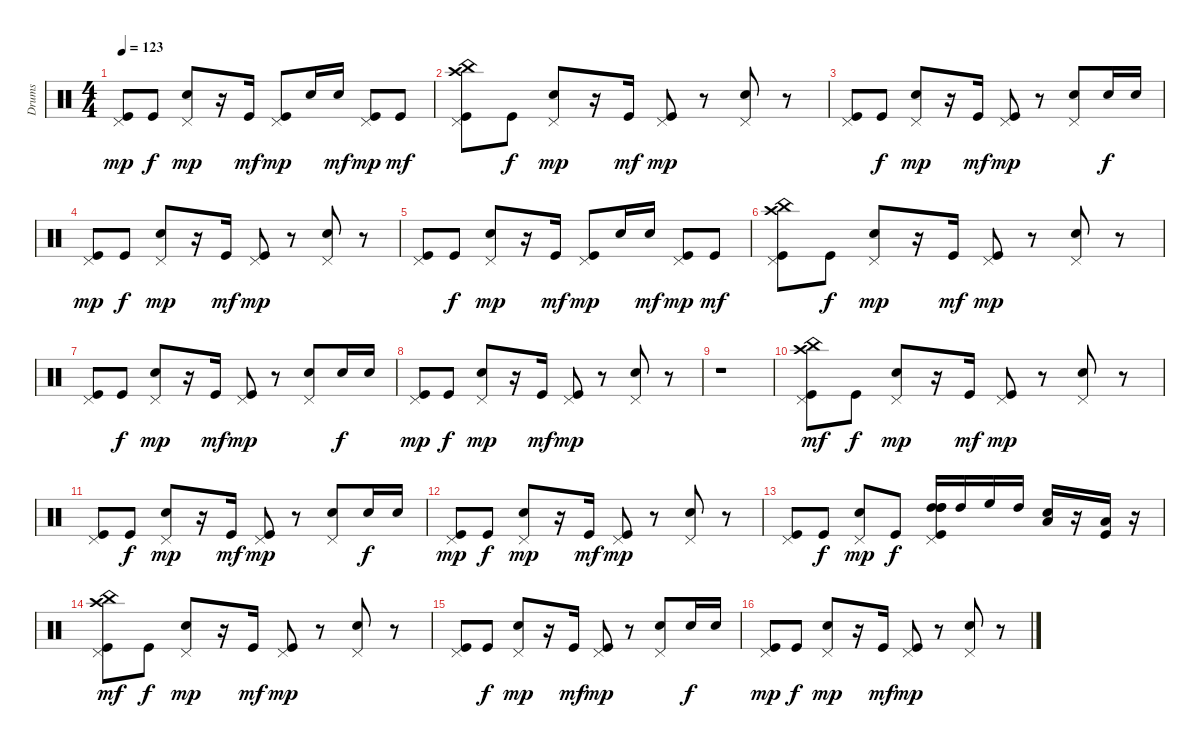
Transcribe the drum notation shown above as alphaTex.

\track ("Drums" "Drums") {instrument percussion}
\staff {score}
\articulation defaults
\ts (4 4)
\tempo 123
\clef neutral
\ks c
("Pedal Hi-Hat (hit)" "Kick (hit)").8{dy mp} "Kick (hit)".8{dy f} ("Pedal Hi-Hat (hit)" "Electric Snare (hit)").8{dy mp} r.16 "Kick (hit)".16{dy mf} ("Pedal Hi-Hat (hit)" "Kick (hit)").8{dy mp} "Electric Snare (hit)".16 "Electric Snare (hit)".16{dy mf} ("Kick (hit)" "Pedal Hi-Hat (hit)").8{dy mp} "Kick (hit)".8{dy mf} |
("Pedal Hi-Hat (hit)" "Kick (hit)" "Crash high (hit)" "China (hit)").8 "Kick (hit)".8{dy f} ("Pedal Hi-Hat (hit)" "Electric Snare (hit)").8{dy mp} r.16 "Kick (hit)".16{dy mf} ("Pedal Hi-Hat (hit)" "Kick (hit)").8{dy mp} r.8 ("Pedal Hi-Hat (hit)" "Electric Snare (hit)").8 r.8 |
("Pedal Hi-Hat (hit)" "Kick (hit)").8 "Kick (hit)".8{dy f} ("Electric Snare (hit)" "Pedal Hi-Hat (hit)").8{dy mp} r.16 "Kick (hit)".16{dy mf} ("Pedal Hi-Hat (hit)" "Kick (hit)").8{dy mp} r.8 ("Pedal Hi-Hat (hit)" "Electric Snare (hit)").8 "Electric Snare (hit)".16{dy f} "Electric Snare (hit)".16 |
("Pedal Hi-Hat (hit)" "Kick (hit)").8{dy mp} "Kick (hit)".8{dy f} ("Pedal Hi-Hat (hit)" "Electric Snare (hit)").8{dy mp} r.16 "Kick (hit)".16{dy mf} ("Pedal Hi-Hat (hit)" "Kick (hit)").8{dy mp} r.8 ("Pedal Hi-Hat (hit)" "Electric Snare (hit)").8 r.8 |
("Pedal Hi-Hat (hit)" "Kick (hit)").8 "Kick (hit)".8{dy f} ("Pedal Hi-Hat (hit)" "Electric Snare (hit)").8{dy mp} r.16 "Kick (hit)".16{dy mf} ("Pedal Hi-Hat (hit)" "Kick (hit)").8{dy mp} "Electric Snare (hit)".16 "Electric Snare (hit)".16{dy mf} ("Kick (hit)" "Pedal Hi-Hat (hit)").8{dy mp} "Kick (hit)".8{dy mf} |
("Pedal Hi-Hat (hit)" "Kick (hit)" "Crash high (hit)" "China (hit)").8 "Kick (hit)".8{dy f} ("Pedal Hi-Hat (hit)" "Electric Snare (hit)").8{dy mp} r.16 "Kick (hit)".16{dy mf} ("Pedal Hi-Hat (hit)" "Kick (hit)").8{dy mp} r.8 ("Pedal Hi-Hat (hit)" "Electric Snare (hit)").8 r.8 |
("Pedal Hi-Hat (hit)" "Kick (hit)").8 "Kick (hit)".8{dy f} ("Electric Snare (hit)" "Pedal Hi-Hat (hit)").8{dy mp} r.16 "Kick (hit)".16{dy mf} ("Pedal Hi-Hat (hit)" "Kick (hit)").8{dy mp} r.8 ("Pedal Hi-Hat (hit)" "Electric Snare (hit)").8 "Electric Snare (hit)".16{dy f} "Electric Snare (hit)".16 |
("Pedal Hi-Hat (hit)" "Kick (hit)").8{dy mp} "Kick (hit)".8{dy f} ("Pedal Hi-Hat (hit)" "Electric Snare (hit)").8{dy mp} r.16 "Kick (hit)".16{dy mf} ("Pedal Hi-Hat (hit)" "Kick (hit)").8{dy mp} r.8 ("Pedal Hi-Hat (hit)" "Electric Snare (hit)").8 r.8 |
r.1 |
("Pedal Hi-Hat (hit)" "Kick (hit)" "Crash high (hit)" "China (hit)").8{dy mf} "Kick (hit)".8{dy f} ("Pedal Hi-Hat (hit)" "Electric Snare (hit)").8{dy mp} r.16 "Kick (hit)".16{dy mf} ("Pedal Hi-Hat (hit)" "Kick (hit)").8{dy mp} r.8 ("Pedal Hi-Hat (hit)" "Electric Snare (hit)").8 r.8 |
("Pedal Hi-Hat (hit)" "Kick (hit)").8 "Kick (hit)".8{dy f} ("Electric Snare (hit)" "Pedal Hi-Hat (hit)").8{dy mp} r.16 "Kick (hit)".16{dy mf} ("Pedal Hi-Hat (hit)" "Kick (hit)").8{dy mp} r.8 ("Pedal Hi-Hat (hit)" "Electric Snare (hit)").8 "Electric Snare (hit)".16{dy f} "Electric Snare (hit)".16 |
("Pedal Hi-Hat (hit)" "Kick (hit)").8{dy mp} "Kick (hit)".8{dy f} ("Pedal Hi-Hat (hit)" "Electric Snare (hit)").8{dy mp} r.16 "Kick (hit)".16{dy mf} ("Pedal Hi-Hat (hit)" "Kick (hit)").8{dy mp} r.8 ("Pedal Hi-Hat (hit)" "Electric Snare (hit)").8 r.8 |
("Pedal Hi-Hat (hit)" "Kick (hit)").8 "Kick (hit)".8{dy f} ("Pedal Hi-Hat (hit)" "Electric Snare (hit)").8{dy mp} "Kick (hit)".8{dy f} ("Pedal Hi-Hat (hit)" "High Tom (hit)" "Kick (hit)" "High Tom (hit)" "High Tom (hit)").16 "High Tom (hit)".16 "High Floor Tom (hit)".16 "High Tom (hit)".16 ("Electric Snare (hit)" "Low Tom (hit)").16 r.16 ("Low Tom (hit)" "Kick (hit)").16 r.16 |
("Pedal Hi-Hat (hit)" "Kick (hit)" "Crash high (hit)" "China (hit)").8{dy mf} "Kick (hit)".8{dy f} ("Pedal Hi-Hat (hit)" "Electric Snare (hit)").8{dy mp} r.16 "Kick (hit)".16{dy mf} ("Pedal Hi-Hat (hit)" "Kick (hit)").8{dy mp} r.8 ("Pedal Hi-Hat (hit)" "Electric Snare (hit)").8 r.8 |
("Pedal Hi-Hat (hit)" "Kick (hit)").8 "Kick (hit)".8{dy f} ("Electric Snare (hit)" "Pedal Hi-Hat (hit)").8{dy mp} r.16 "Kick (hit)".16{dy mf} ("Pedal Hi-Hat (hit)" "Kick (hit)").8{dy mp} r.8 ("Pedal Hi-Hat (hit)" "Electric Snare (hit)").8 "Electric Snare (hit)".16{dy f} "Electric Snare (hit)".16 |
("Pedal Hi-Hat (hit)" "Kick (hit)").8{dy mp} "Kick (hit)".8{dy f} ("Pedal Hi-Hat (hit)" "Electric Snare (hit)").8{dy mp} r.16 "Kick (hit)".16{dy mf} ("Pedal Hi-Hat (hit)" "Kick (hit)").8{dy mp} r.8 ("Pedal Hi-Hat (hit)" "Electric Snare (hit)").8 r.8
